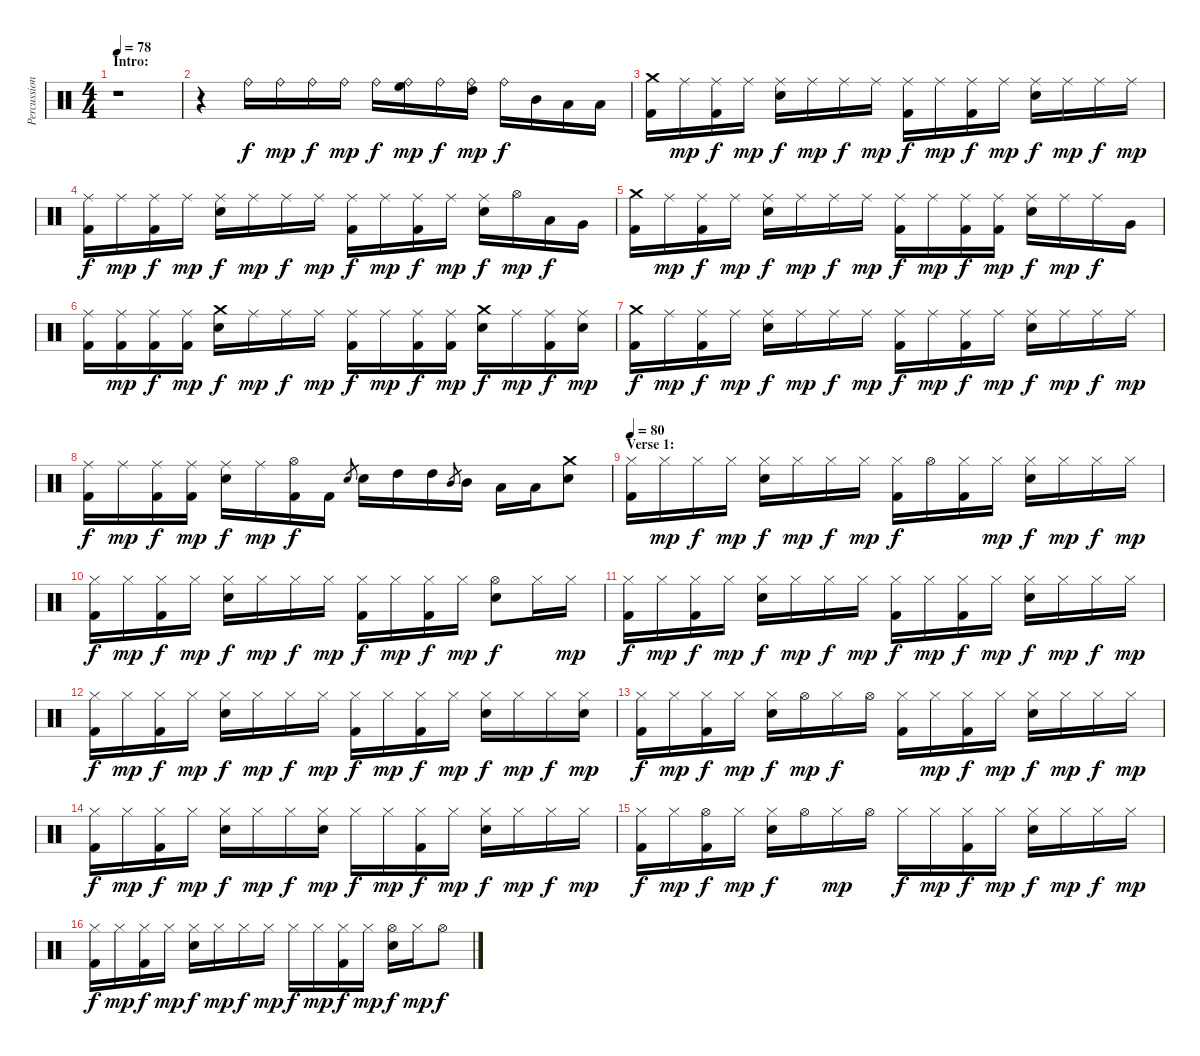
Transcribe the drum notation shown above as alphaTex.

\track ("Percussion" "Percussion") {instrument percussion}
\staff {score}
\articulation defaults
\ts (4 4)
\section ("" "Intro:")
\tempo 78
\clef neutral
\ks c
r.1{dy f} |
r.4 "Ride (bell)".16 "Ride (bell)".16{dy mp} "Ride (bell)".16{dy f} "Ride (bell)".16{dy mp} "Ride (bell)".16{dy f} ("Ride (bell)" "High Floor Tom (hit)").16{dy mp} "Ride (bell)".16{dy f} ("Ride (bell)" "High Tom (hit)").16{dy mp} "Ride (bell)".16{dy f} "Mid Tom (hit)".16 "Low Tom (hit)".16 "Low Tom (hit)".16 |
("Crash medium (hit)" "Kick (hit) 2").16 "Ride (middle)".16{dy mp} ("Ride (middle)" "Kick (hit) 2").16{dy f} "Ride (middle)".16{dy mp} ("Ride (middle)" "Electric Snare (hit)").16{dy f} "Ride (middle)".16{dy mp} "Ride (middle)".16{dy f} "Ride (middle)".16{dy mp} ("Ride (middle)" "Kick (hit) 2").16{dy f} "Ride (middle)".16{dy mp} ("Ride (middle)" "Kick (hit) 2").16{dy f} "Ride (middle)".16{dy mp} ("Ride (middle)" "Electric Snare (hit)").16{dy f} "Ride (middle)".16{dy mp} "Ride (middle)".16{dy f} "Ride (middle)".16{dy mp} |
("Ride (middle)" "Kick (hit) 2").16{dy f} "Ride (middle)".16{dy mp} ("Ride (middle)" "Kick (hit) 2").16{dy f} "Ride (middle)".16{dy mp} ("Ride (middle)" "Electric Snare (hit)").16{dy f} "Ride (middle)".16{dy mp} "Ride (middle)".16{dy f} "Ride (middle)".16{dy mp} ("Ride (middle)" "Kick (hit) 2").16{dy f} "Ride (middle)".16{dy mp} ("Ride (middle)" "Kick (hit) 2").16{dy f} "Ride (middle)".16{dy mp} ("Ride (middle)" "Electric Snare (hit)").16{dy f} "Hi-Hat (open)".16{dy mp} "Low Tom (hit)".16{dy f} "Very Low Tom (hit)".16 |
("Crash medium (hit)" "Kick (hit) 2").16 "Ride (middle)".16{dy mp} ("Ride (middle)" "Kick (hit) 2").16{dy f} "Ride (middle)".16{dy mp} ("Ride (middle)" "Electric Snare (hit)").16{dy f} "Ride (middle)".16{dy mp} "Ride (middle)".16{dy f} "Ride (middle)".16{dy mp} ("Ride (middle)" "Kick (hit) 2").16{dy f} "Ride (middle)".16{dy mp} ("Ride (middle)" "Kick (hit) 2").16{dy f} ("Ride (middle)" "Kick (hit) 2").16{dy mp} ("Ride (middle)" "Electric Snare (hit)").16{dy f} "Ride (middle)".16{dy mp} "Ride (middle)".16{dy f} "Very Low Tom (hit)".16 |
("Ride (middle)" "Kick (hit) 2").16 ("Ride (middle)" "Kick (hit) 2").16{dy mp} ("Ride (middle)" "Kick (hit) 2").16{dy f} ("Ride (middle)" "Kick (hit) 2").16{dy mp} ("Crash medium (hit)" "Electric Snare (hit)").16{dy f} "Ride (middle)".16{dy mp} "Ride (middle)".16{dy f} "Ride (middle)".16{dy mp} ("Ride (middle)" "Kick (hit) 2").16{dy f} "Ride (middle)".16{dy mp} ("Ride (middle)" "Kick (hit) 2").16{dy f} ("Ride (middle)" "Kick (hit) 2").16{dy mp} ("Crash medium (hit)" "Electric Snare (hit)").16{dy f} "Ride (middle)".16{dy mp} ("Ride (middle)" "Kick (hit) 2").16{dy f} ("Ride (middle)" "Electric Snare (hit)").16{dy mp} |
("Crash medium (hit)" "Kick (hit) 2").16{dy f} "Ride (middle)".16{dy mp} ("Ride (middle)" "Kick (hit) 2").16{dy f} "Ride (middle)".16{dy mp} ("Ride (middle)" "Electric Snare (hit)").16{dy f} "Ride (middle)".16{dy mp} "Ride (middle)".16{dy f} "Ride (middle)".16{dy mp} ("Ride (middle)" "Kick (hit) 2").16{dy f} "Ride (middle)".16{dy mp} ("Ride (middle)" "Kick (hit) 2").16{dy f} "Ride (middle)".16{dy mp} ("Ride (middle)" "Electric Snare (hit)").16{dy f} "Ride (middle)".16{dy mp} "Ride (middle)".16{dy f} "Ride (middle)".16{dy mp} |
("Ride (middle)" "Kick (hit) 2").16{dy f} "Ride (middle)".16{dy mp} ("Ride (middle)" "Kick (hit) 2").16{dy f} ("Ride (middle)" "Kick (hit) 2").16{dy mp} ("Ride (middle)" "Electric Snare (hit)").16{dy f} "Ride (middle)".16{dy mp} ("Hi-Hat (open)" "Kick (hit) 2").16{dy f} "Kick (hit) 2".16 "Electric Snare (hit)".8{gr} "Electric Snare (hit)".16 "High Tom (hit)".16 "High Tom (hit)".16 "Mid Tom (hit)".8{gr} "Mid Tom (hit)".16 "Low Tom (hit)".16 "Low Tom (hit)".16 ("Crash medium (hit)" "Electric Snare (hit)").8 |
\section ("" "Verse 1:")
\tempo 80
("Hi-Hat (closed)" "Kick (hit) 2").16 "Hi-Hat (closed)".16{dy mp} "Hi-Hat (closed)".16{dy f} "Hi-Hat (closed)".16{dy mp} ("Hi-Hat (closed)" "Electric Snare (hit)").16{dy f} "Hi-Hat (closed)".16{dy mp} "Hi-Hat (closed)".16{dy f} "Hi-Hat (closed)".16{dy mp} ("Hi-Hat (closed)" "Kick (hit) 2").16{dy f} "Hi-Hat (open)".16 ("Hi-Hat (closed)" "Kick (hit) 2").16 "Hi-Hat (closed)".16{dy mp} ("Hi-Hat (closed)" "Electric Snare (hit)").16{dy f} "Hi-Hat (closed)".16{dy mp} "Hi-Hat (closed)".16{dy f} "Hi-Hat (closed)".16{dy mp} |
("Hi-Hat (closed)" "Kick (hit) 2").16{dy f} "Hi-Hat (closed)".16{dy mp} ("Hi-Hat (closed)" "Kick (hit) 2").16{dy f} "Hi-Hat (closed)".16{dy mp} ("Hi-Hat (closed)" "Electric Snare (hit)").16{dy f} "Hi-Hat (closed)".16{dy mp} "Hi-Hat (closed)".16{dy f} "Hi-Hat (closed)".16{dy mp} ("Hi-Hat (closed)" "Kick (hit) 2").16{dy f} "Hi-Hat (closed)".16{dy mp} ("Hi-Hat (closed)" "Kick (hit) 2").16{dy f} "Hi-Hat (closed)".16{dy mp} ("Hi-Hat (open)" "Electric Snare (hit)").8{dy f} "Hi-Hat (closed)".16 "Hi-Hat (closed)".16{dy mp} |
("Hi-Hat (closed)" "Kick (hit) 2").16{dy f} "Hi-Hat (closed)".16{dy mp} ("Hi-Hat (closed)" "Kick (hit) 2").16{dy f} "Hi-Hat (closed)".16{dy mp} ("Hi-Hat (closed)" "Electric Snare (hit)").16{dy f} "Hi-Hat (closed)".16{dy mp} "Hi-Hat (closed)".16{dy f} "Hi-Hat (closed)".16{dy mp} ("Hi-Hat (closed)" "Kick (hit) 2").16{dy f} "Hi-Hat (closed)".16{dy mp} ("Hi-Hat (closed)" "Kick (hit) 2").16{dy f} "Hi-Hat (closed)".16{dy mp} ("Hi-Hat (closed)" "Electric Snare (hit)").16{dy f} "Hi-Hat (closed)".16{dy mp} "Hi-Hat (closed)".16{dy f} "Hi-Hat (closed)".16{dy mp} |
("Hi-Hat (closed)" "Kick (hit) 2").16{dy f} "Hi-Hat (closed)".16{dy mp} ("Hi-Hat (closed)" "Kick (hit) 2").16{dy f} "Hi-Hat (closed)".16{dy mp} ("Hi-Hat (closed)" "Electric Snare (hit)").16{dy f} "Hi-Hat (closed)".16{dy mp} "Hi-Hat (closed)".16{dy f} "Hi-Hat (closed)".16{dy mp} ("Hi-Hat (closed)" "Kick (hit) 2").16{dy f} "Hi-Hat (closed)".16{dy mp} ("Hi-Hat (closed)" "Kick (hit) 2").16{dy f} "Hi-Hat (closed)".16{dy mp} ("Hi-Hat (closed)" "Electric Snare (hit)").16{dy f} "Hi-Hat (closed)".16{dy mp} "Hi-Hat (closed)".16{dy f} ("Hi-Hat (closed)" "Electric Snare (hit)").16{dy mp} |
("Hi-Hat (closed)" "Kick (hit) 2").16{dy f} "Hi-Hat (closed)".16{dy mp} ("Hi-Hat (closed)" "Kick (hit) 2").16{dy f} "Hi-Hat (closed)".16{dy mp} ("Hi-Hat (closed)" "Electric Snare (hit)").16{dy f} "Hi-Hat (open)".16{dy mp} "Hi-Hat (closed)".16{dy f} "Hi-Hat (open)".16 ("Hi-Hat (closed)" "Kick (hit) 2").16 "Hi-Hat (closed)".16{dy mp} ("Hi-Hat (closed)" "Kick (hit) 2").16{dy f} "Hi-Hat (closed)".16{dy mp} ("Hi-Hat (closed)" "Electric Snare (hit)").16{dy f} "Hi-Hat (closed)".16{dy mp} "Hi-Hat (closed)".16{dy f} "Hi-Hat (closed)".16{dy mp} |
("Hi-Hat (closed)" "Kick (hit) 2").16{dy f} "Hi-Hat (closed)".16{dy mp} ("Hi-Hat (closed)" "Kick (hit) 2").16{dy f} "Hi-Hat (closed)".16{dy mp} ("Hi-Hat (closed)" "Electric Snare (hit)").16{dy f} "Hi-Hat (closed)".16{dy mp} "Hi-Hat (closed)".16{dy f} ("Hi-Hat (closed)" "Electric Snare (hit)").16{dy mp} "Hi-Hat (closed)".16{dy f} "Hi-Hat (closed)".16{dy mp} ("Hi-Hat (closed)" "Kick (hit) 2").16{dy f} "Hi-Hat (closed)".16{dy mp} ("Hi-Hat (closed)" "Electric Snare (hit)").16{dy f} "Hi-Hat (closed)".16{dy mp} "Hi-Hat (closed)".16{dy f} "Hi-Hat (closed)".16{dy mp} |
("Hi-Hat (closed)" "Kick (hit) 2").16{dy f} "Hi-Hat (closed)".16{dy mp} ("Hi-Hat (open)" "Kick (hit) 2").16{dy f} "Hi-Hat (closed)".16{dy mp} ("Hi-Hat (closed)" "Electric Snare (hit)").16{dy f} "Hi-Hat (open)".16 "Hi-Hat (closed)".16{dy mp} "Hi-Hat (open)".16 "Hi-Hat (closed)".16{dy f} "Hi-Hat (closed)".16{dy mp} ("Hi-Hat (closed)" "Kick (hit) 2").16{dy f} "Hi-Hat (closed)".16{dy mp} ("Hi-Hat (closed)" "Electric Snare (hit)").16{dy f} "Hi-Hat (closed)".16{dy mp} "Hi-Hat (closed)".16{dy f} "Hi-Hat (closed)".16{dy mp} |
("Hi-Hat (closed)" "Kick (hit) 2").16{dy f} "Hi-Hat (closed)".16{dy mp} ("Hi-Hat (closed)" "Kick (hit) 2").16{dy f} "Hi-Hat (closed)".16{dy mp} ("Hi-Hat (closed)" "Electric Snare (hit)").16{dy f} "Hi-Hat (closed)".16{dy mp} "Hi-Hat (closed)".16{dy f} "Hi-Hat (closed)".16{dy mp} "Hi-Hat (closed)".16{dy f} "Hi-Hat (closed)".16{dy mp} ("Hi-Hat (closed)" "Kick (hit) 2").16{dy f} "Hi-Hat (closed)".16{dy mp} ("Hi-Hat (open)" "Electric Snare (hit)").16{dy f} "Hi-Hat (closed)".16{dy mp} "Hi-Hat (open)".8{dy f}
